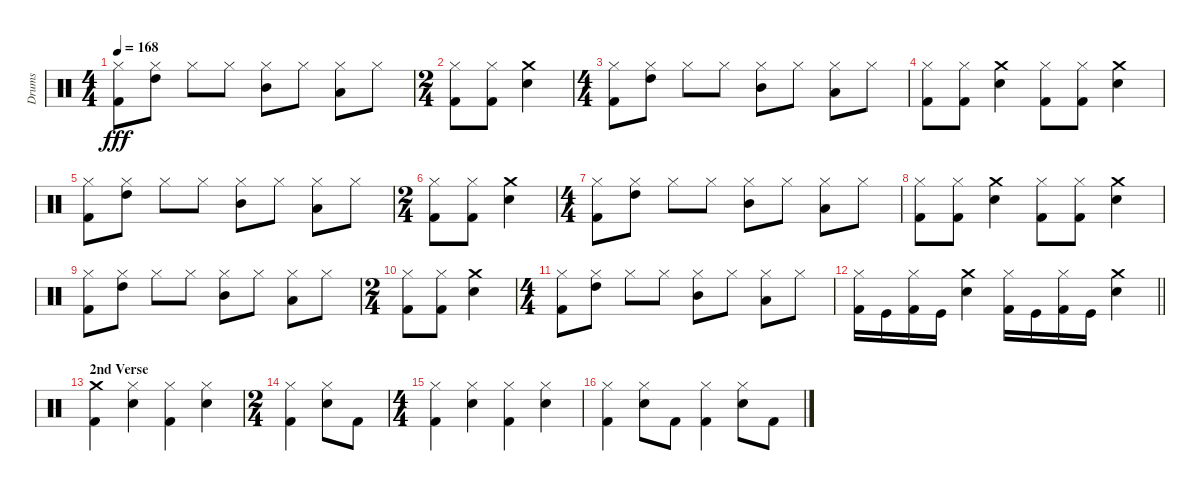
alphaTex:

\track ("Drums" "Drums") {instrument percussion}
\staff {score}
\articulation defaults
\ts (4 4)
\tempo 168
\clef neutral
\ks c
("Hi-Hat (closed)" "Kick (hit) 2").8{dy fff} ("High Tom (hit)" "Hi-Hat (closed)").8{balance 16} "Hi-Hat (closed)".8{balance 8} "Hi-Hat (closed)".8 ("Mid Tom (hit)" "Hi-Hat (closed)").8 "Hi-Hat (closed)".8 ("Low Tom (hit)" "Hi-Hat (closed)").8{balance 0} "Hi-Hat (closed)".8{balance 8} |
\ts (2 4)
("Kick (hit) 2" "Hi-Hat (closed)").8 ("Kick (hit) 2" "Hi-Hat (closed)").8 ("Snare (hit) 2" "Crash medium (hit)").4 |
\ts (4 4)
("Hi-Hat (closed)" "Kick (hit) 2").8 ("High Tom (hit)" "Hi-Hat (closed)").8{balance 16} "Hi-Hat (closed)".8{balance 8} "Hi-Hat (closed)".8 ("Mid Tom (hit)" "Hi-Hat (closed)").8 "Hi-Hat (closed)".8 ("Hi-Hat (closed)" "Low Tom (hit)").8{balance 0} "Hi-Hat (closed)".8{balance 8} |
("Hi-Hat (closed)" "Kick (hit) 2").8 ("Hi-Hat (closed)" "Kick (hit) 2").8 ("Snare (hit) 2" "Crash medium (hit)").4 ("Kick (hit) 2" "Hi-Hat (closed)").8 ("Kick (hit) 2" "Hi-Hat (closed)").8 ("Crash medium (hit)" "Snare (hit) 2").4 |
("Hi-Hat (closed)" "Kick (hit) 2").8 ("High Tom (hit)" "Hi-Hat (closed)").8{balance 16} "Hi-Hat (closed)".8{balance 8} "Hi-Hat (closed)".8 ("Mid Tom (hit)" "Hi-Hat (closed)").8 "Hi-Hat (closed)".8 ("Low Tom (hit)" "Hi-Hat (closed)").8{balance 0} "Hi-Hat (closed)".8{balance 8} |
\ts (2 4)
("Kick (hit) 2" "Hi-Hat (closed)").8 ("Kick (hit) 2" "Hi-Hat (closed)").8 ("Snare (hit) 2" "Crash medium (hit)").4 |
\ts (4 4)
("Hi-Hat (closed)" "Kick (hit) 2").8 ("High Tom (hit)" "Hi-Hat (closed)").8{balance 16} "Hi-Hat (closed)".8{balance 8} "Hi-Hat (closed)".8 ("Mid Tom (hit)" "Hi-Hat (closed)").8 "Hi-Hat (closed)".8 ("Hi-Hat (closed)" "Low Tom (hit)").8{balance 0} "Hi-Hat (closed)".8{balance 8} |
("Hi-Hat (closed)" "Kick (hit) 2").8 ("Hi-Hat (closed)" "Kick (hit) 2").8 ("Snare (hit) 2" "Crash medium (hit)").4 ("Kick (hit) 2" "Hi-Hat (closed)").8 ("Kick (hit) 2" "Hi-Hat (closed)").8 ("Crash medium (hit)" "Snare (hit) 2").4 |
("Hi-Hat (closed)" "Kick (hit) 2").8 ("High Tom (hit)" "Hi-Hat (closed)").8{balance 16} "Hi-Hat (closed)".8{balance 8} "Hi-Hat (closed)".8 ("Mid Tom (hit)" "Hi-Hat (closed)").8 "Hi-Hat (closed)".8 ("Hi-Hat (closed)" "Low Tom (hit)").8{balance 0} "Hi-Hat (closed)".8{balance 8} |
\ts (2 4)
("Hi-Hat (closed)" "Kick (hit) 2").8 ("Hi-Hat (closed)" "Kick (hit) 2").8 ("Crash medium (hit)" "Snare (hit) 2").4 |
\ts (4 4)
("Hi-Hat (closed)" "Kick (hit) 2").8 ("High Tom (hit)" "Hi-Hat (closed)").8{balance 16} "Hi-Hat (closed)".8{balance 8} "Hi-Hat (closed)".8 ("Mid Tom (hit)" "Hi-Hat (closed)").8 "Hi-Hat (closed)".8 ("Hi-Hat (closed)" "Low Tom (hit)").8{balance 0} "Hi-Hat (closed)".8{balance 8} |
\barLineRight lightlight
("Kick (hit) 2" "Hi-Hat (closed)").16 "Kick (hit)".16 ("Kick (hit) 2" "Hi-Hat (closed)").16 "Kick (hit)".16 ("Snare (hit) 2" "Crash medium (hit)").4 ("Kick (hit) 2" "Hi-Hat (closed)").16 "Kick (hit)".16 ("Kick (hit) 2" "Hi-Hat (closed)").16 "Kick (hit)".16 ("Crash medium (hit)" "Snare (hit) 2").4 |
\section ("" "2nd Verse")
("Kick (hit) 2" "Crash medium (hit)").4 ("Hi-Hat (closed)" "Snare (hit) 2").4 ("Hi-Hat (closed)" "Kick (hit) 2").4 ("Snare (hit) 2" "Hi-Hat (closed)").4 |
\ts (2 4)
("Hi-Hat (closed)" "Kick (hit) 2").4 ("Snare (hit) 2" "Hi-Hat (closed)").8 "Kick (hit) 2".8 |
\ts (4 4)
("Kick (hit) 2" "Hi-Hat (closed)").4 ("Snare (hit) 2" "Hi-Hat (closed)").4 ("Kick (hit) 2" "Hi-Hat (closed)").4 ("Snare (hit) 2" "Hi-Hat (closed)").4 |
("Hi-Hat (closed)" "Kick (hit) 2").4 ("Snare (hit) 2" "Hi-Hat (closed)").8 "Kick (hit) 2".8 ("Kick (hit) 2" "Hi-Hat (closed)").4 ("Hi-Hat (closed)" "Snare (hit) 2").8 "Kick (hit) 2".8
